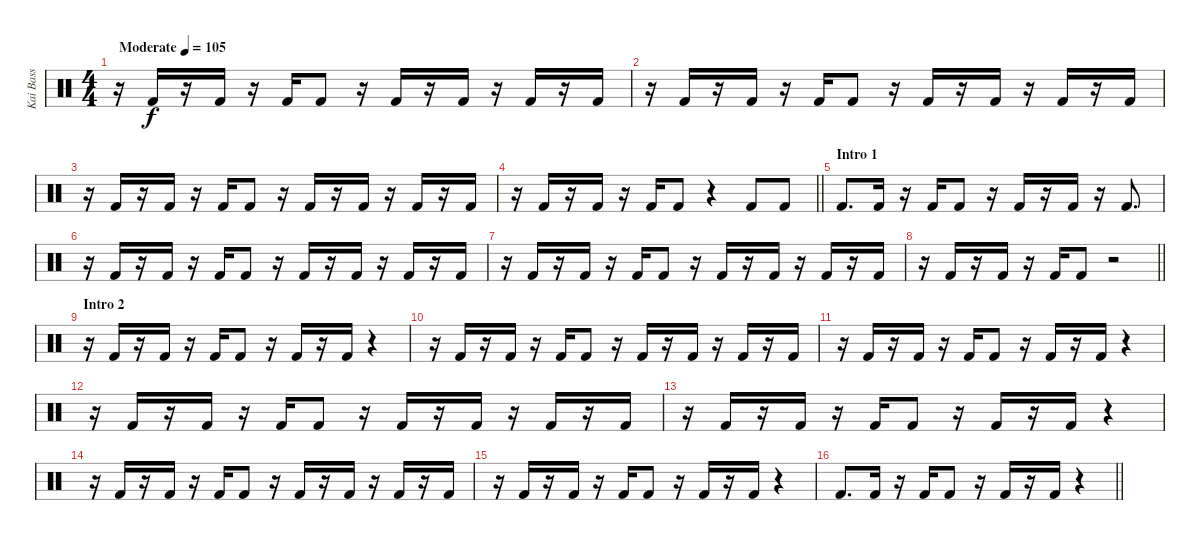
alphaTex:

\track ("Kai Bass" "Kai Bass") {instrument percussion}
\staff {score}
\articulation defaults
\ts (4 4)
\tempo (105 "Moderate")
\clef neutral
\ks c
r.16{dy f} "Kick (hit) 2".16 r.16 "Kick (hit) 2".16 r.16 "Kick (hit) 2".16 "Kick (hit) 2".8 r.16 "Kick (hit) 2".16 r.16 "Kick (hit) 2".16 r.16 "Kick (hit) 2".16 r.16 "Kick (hit) 2".16 |
r.16 "Kick (hit) 2".16 r.16 "Kick (hit) 2".16 r.16 "Kick (hit) 2".16 "Kick (hit) 2".8 r.16 "Kick (hit) 2".16 r.16 "Kick (hit) 2".16 r.16 "Kick (hit) 2".16 r.16 "Kick (hit) 2".16 |
r.16 "Kick (hit) 2".16 r.16 "Kick (hit) 2".16 r.16 "Kick (hit) 2".16 "Kick (hit) 2".8 r.16 "Kick (hit) 2".16 r.16 "Kick (hit) 2".16 r.16 "Kick (hit) 2".16 r.16 "Kick (hit) 2".16 |
\barLineRight lightlight
r.16 "Kick (hit) 2".16 r.16 "Kick (hit) 2".16 r.16 "Kick (hit) 2".16 "Kick (hit) 2".8 r.4 "Kick (hit) 2".8 "Kick (hit) 2".8 |
\section ("" "Intro 1")
"Kick (hit) 2".8{d} "Kick (hit) 2".16 r.16 "Kick (hit) 2".16 "Kick (hit) 2".8 r.16 "Kick (hit) 2".16 r.16 "Kick (hit) 2".16 r.16 "Kick (hit) 2".8{d} |
r.16 "Kick (hit) 2".16 r.16 "Kick (hit) 2".16 r.16 "Kick (hit) 2".16 "Kick (hit) 2".8 r.16 "Kick (hit) 2".16 r.16 "Kick (hit) 2".16 r.16 "Kick (hit) 2".16 r.16 "Kick (hit) 2".16 |
r.16 "Kick (hit) 2".16 r.16 "Kick (hit) 2".16 r.16 "Kick (hit) 2".16 "Kick (hit) 2".8 r.16 "Kick (hit) 2".16 r.16 "Kick (hit) 2".16 r.16 "Kick (hit) 2".16 r.16 "Kick (hit) 2".16 |
\barLineRight lightlight
r.16 "Kick (hit) 2".16 r.16 "Kick (hit) 2".16 r.16 "Kick (hit) 2".16 "Kick (hit) 2".8 r.2 |
\section ("" "Intro 2")
r.16 "Kick (hit) 2".16 r.16 "Kick (hit) 2".16 r.16 "Kick (hit) 2".16 "Kick (hit) 2".8 r.16 "Kick (hit) 2".16 r.16 "Kick (hit) 2".16 r.4 |
r.16 "Kick (hit) 2".16 r.16 "Kick (hit) 2".16 r.16 "Kick (hit) 2".16 "Kick (hit) 2".8 r.16 "Kick (hit) 2".16 r.16 "Kick (hit) 2".16 r.16 "Kick (hit) 2".16 r.16 "Kick (hit) 2".16 |
r.16 "Kick (hit) 2".16 r.16 "Kick (hit) 2".16 r.16 "Kick (hit) 2".16 "Kick (hit) 2".8 r.16 "Kick (hit) 2".16 r.16 "Kick (hit) 2".16 r.4 |
r.16 "Kick (hit) 2".16 r.16 "Kick (hit) 2".16 r.16 "Kick (hit) 2".16 "Kick (hit) 2".8 r.16 "Kick (hit) 2".16 r.16 "Kick (hit) 2".16 r.16 "Kick (hit) 2".16 r.16 "Kick (hit) 2".16 |
r.16 "Kick (hit) 2".16 r.16 "Kick (hit) 2".16 r.16 "Kick (hit) 2".16 "Kick (hit) 2".8 r.16 "Kick (hit) 2".16 r.16 "Kick (hit) 2".16 r.4 |
r.16 "Kick (hit) 2".16 r.16 "Kick (hit) 2".16 r.16 "Kick (hit) 2".16 "Kick (hit) 2".8 r.16 "Kick (hit) 2".16 r.16 "Kick (hit) 2".16 r.16 "Kick (hit) 2".16 r.16 "Kick (hit) 2".16 |
r.16 "Kick (hit) 2".16 r.16 "Kick (hit) 2".16 r.16 "Kick (hit) 2".16 "Kick (hit) 2".8 r.16 "Kick (hit) 2".16 r.16 "Kick (hit) 2".16 r.4 |
\barLineRight lightlight "Kick (hit) 2".8{d} "Kick (hit) 2".16
r.16 "Kick (hit) 2".16 "Kick (hit) 2".8 r.16 "Kick (hit) 2".16 r.16 "Kick (hit) 2".16 r.4
